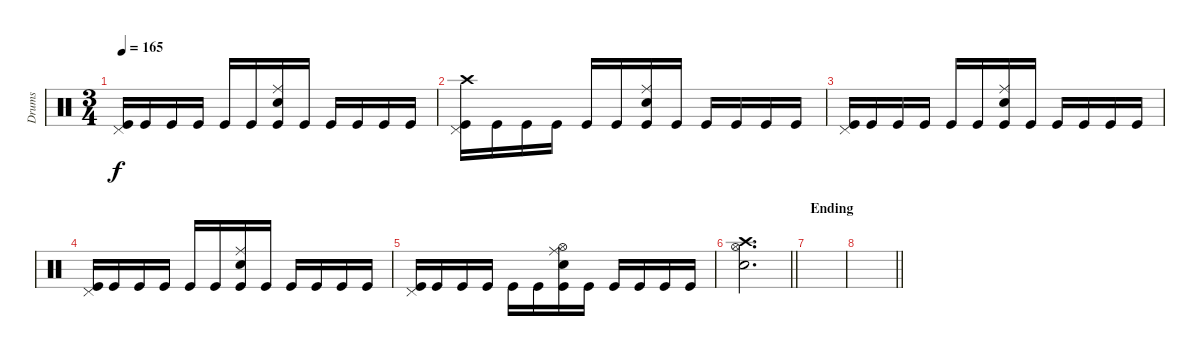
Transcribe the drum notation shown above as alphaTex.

\track ("Drums" "Drums") {instrument percussion}
\staff {score}
\articulation defaults
\ts (3 4)
\tempo 165
\clef neutral
\ks c
("Pedal Hi-Hat (hit)" "Kick (hit)").16{dy f} "Kick (hit)".16 "Kick (hit)".16 "Kick (hit)".16 "Kick (hit)".16 "Kick (hit)".16 ("Ride (middle)" "Snare (hit) 2" "Kick (hit)").16 "Kick (hit)".16 "Kick (hit)".16 "Kick (hit)".16 "Kick (hit)".16 "Kick (hit)".16 |
("Crash high (hit)" "Pedal Hi-Hat (hit)" "Kick (hit)").16 "Kick (hit)".16 "Kick (hit)".16 "Kick (hit)".16 "Kick (hit)".16 "Kick (hit)".16 ("Ride (middle)" "Snare (hit) 2" "Kick (hit)").16 "Kick (hit)".16 "Kick (hit)".16 "Kick (hit)".16 "Kick (hit)".16 "Kick (hit)".16 |
("Pedal Hi-Hat (hit)" "Kick (hit)").16 "Kick (hit)".16 "Kick (hit)".16 "Kick (hit)".16 "Kick (hit)".16 "Kick (hit)".16 ("Ride (middle)" "Snare (hit) 2" "Kick (hit)").16 "Kick (hit)".16 "Kick (hit)".16 "Kick (hit)".16 "Kick (hit)".16 "Kick (hit)".16 |
("Pedal Hi-Hat (hit)" "Kick (hit)").16 "Kick (hit)".16 "Kick (hit)".16 "Kick (hit)".16 "Kick (hit)".16 "Kick (hit)".16 ("Ride (middle)" "Snare (hit) 2" "Kick (hit)").16 "Kick (hit)".16 "Kick (hit)".16 "Kick (hit)".16 "Kick (hit)".16 "Kick (hit)".16 |
("Pedal Hi-Hat (hit)" "Kick (hit)").16 "Kick (hit)".16 "Kick (hit)".16 "Kick (hit)".16 "Kick (hit)".16 "Kick (hit)".16 ("Hi-Hat (open)" "Ride (middle)" "Snare (hit) 2" "Kick (hit)").16 "Kick (hit)".16 "Kick (hit)".16 "Kick (hit)".16 "Kick (hit)".16 "Kick (hit)".16 |
\barLineRight lightlight
("Crash high (hit)" "Hi-Hat (open)" "Snare (hit) 2").2{d} |
\section ("" "Ending")
|
\barLineRight lightlight
